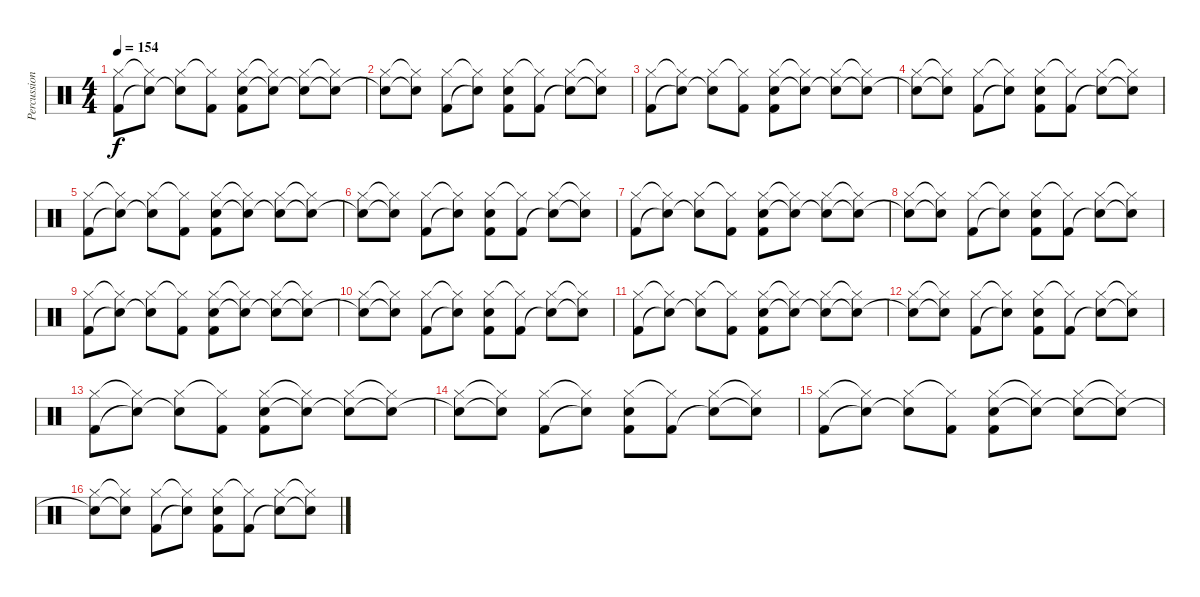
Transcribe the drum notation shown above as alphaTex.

\track ("Percussion" "Percussion") {instrument percussion}
\staff {score}
\articulation defaults
\ts (4 4)
\tempo 154
\clef neutral
\ks c
("Hi-Hat (closed)" "Kick (hit) 2").8{dy f} ("Hi-Hat (closed)"{t} "Snare (hit)"{t}).8 ("Hi-Hat (closed)" "Snare (hit)"{t}).8 ("Hi-Hat (closed)"{t} "Kick (hit) 2").8 ("Hi-Hat (closed)" "Electric Snare (hit)" "Kick (hit) 2").8 ("Hi-Hat (closed)"{t} "Snare (hit)"{t}).8 ("Hi-Hat (closed)" "Snare (hit)"{t}).8 ("Hi-Hat (closed)"{t} "Snare (hit)"{t}).8 |
("Hi-Hat (closed)" "Snare (hit)"{t}).8 ("Hi-Hat (closed)"{t} "Snare (hit)"{t}).8 ("Hi-Hat (closed)" "Kick (hit) 2").8 ("Hi-Hat (closed)"{t} "Snare (hit)"{t}).8 ("Hi-Hat (closed)" "Electric Snare (hit)" "Kick (hit) 2").8 ("Hi-Hat (closed)"{t} "Kick (hit) 2").8 ("Hi-Hat (closed)" "Snare (hit)"{t}).8 ("Hi-Hat (closed)"{t} "Snare (hit)"{t}).8 |
("Hi-Hat (closed)" "Kick (hit) 2").8 ("Hi-Hat (closed)"{t} "Snare (hit)"{t}).8 ("Hi-Hat (closed)" "Snare (hit)"{t}).8 ("Hi-Hat (closed)"{t} "Kick (hit) 2").8 ("Hi-Hat (closed)" "Electric Snare (hit)" "Kick (hit) 2").8 ("Hi-Hat (closed)"{t} "Snare (hit)"{t}).8 ("Hi-Hat (closed)" "Snare (hit)"{t}).8 ("Hi-Hat (closed)"{t} "Snare (hit)"{t}).8 |
("Hi-Hat (closed)" "Snare (hit)"{t}).8 ("Hi-Hat (closed)"{t} "Snare (hit)"{t}).8 ("Hi-Hat (closed)" "Kick (hit) 2").8 ("Hi-Hat (closed)"{t} "Snare (hit)"{t}).8 ("Hi-Hat (closed)" "Electric Snare (hit)" "Kick (hit) 2").8 ("Hi-Hat (closed)"{t} "Kick (hit) 2").8 ("Hi-Hat (closed)" "Snare (hit)"{t}).8 ("Hi-Hat (closed)"{t} "Snare (hit)"{t}).8 |
("Hi-Hat (closed)" "Kick (hit) 2").8 ("Hi-Hat (closed)"{t} "Snare (hit)"{t}).8 ("Hi-Hat (closed)" "Snare (hit)"{t}).8 ("Hi-Hat (closed)"{t} "Kick (hit) 2").8 ("Hi-Hat (closed)" "Electric Snare (hit)" "Kick (hit) 2").8 ("Hi-Hat (closed)"{t} "Snare (hit)"{t}).8 ("Hi-Hat (closed)" "Snare (hit)"{t}).8 ("Hi-Hat (closed)"{t} "Snare (hit)"{t}).8 |
("Hi-Hat (closed)" "Snare (hit)"{t}).8 ("Hi-Hat (closed)"{t} "Snare (hit)"{t}).8 ("Hi-Hat (closed)" "Kick (hit) 2").8 ("Hi-Hat (closed)"{t} "Snare (hit)"{t}).8 ("Hi-Hat (closed)" "Electric Snare (hit)" "Kick (hit) 2").8 ("Hi-Hat (closed)"{t} "Kick (hit) 2").8 ("Hi-Hat (closed)" "Snare (hit)"{t}).8 ("Hi-Hat (closed)"{t} "Snare (hit)"{t}).8 |
("Hi-Hat (closed)" "Kick (hit) 2").8 ("Hi-Hat (closed)"{t} "Snare (hit)"{t}).8 ("Hi-Hat (closed)" "Snare (hit)"{t}).8 ("Hi-Hat (closed)"{t} "Kick (hit) 2").8 ("Hi-Hat (closed)" "Electric Snare (hit)" "Kick (hit) 2").8 ("Hi-Hat (closed)"{t} "Snare (hit)"{t}).8 ("Hi-Hat (closed)" "Snare (hit)"{t}).8 ("Hi-Hat (closed)"{t} "Snare (hit)"{t}).8 |
("Hi-Hat (closed)" "Snare (hit)"{t}).8 ("Hi-Hat (closed)"{t} "Snare (hit)"{t}).8 ("Hi-Hat (closed)" "Kick (hit) 2").8 ("Hi-Hat (closed)"{t} "Snare (hit)"{t}).8 ("Hi-Hat (closed)" "Electric Snare (hit)" "Kick (hit) 2").8 ("Hi-Hat (closed)"{t} "Kick (hit) 2").8 ("Hi-Hat (closed)" "Snare (hit)"{t}).8 ("Hi-Hat (closed)"{t} "Snare (hit)"{t}).8 |
("Hi-Hat (closed)" "Kick (hit) 2").8 ("Hi-Hat (closed)"{t} "Snare (hit)"{t}).8 ("Hi-Hat (closed)" "Snare (hit)"{t}).8 ("Hi-Hat (closed)"{t} "Kick (hit) 2").8 ("Hi-Hat (closed)" "Electric Snare (hit)" "Kick (hit) 2").8 ("Hi-Hat (closed)"{t} "Snare (hit)"{t}).8 ("Hi-Hat (closed)" "Snare (hit)"{t}).8 ("Hi-Hat (closed)"{t} "Snare (hit)"{t}).8 |
("Hi-Hat (closed)" "Snare (hit)"{t}).8 ("Hi-Hat (closed)"{t} "Snare (hit)"{t}).8 ("Hi-Hat (closed)" "Kick (hit) 2").8 ("Hi-Hat (closed)"{t} "Snare (hit)"{t}).8 ("Hi-Hat (closed)" "Electric Snare (hit)" "Kick (hit) 2").8 ("Hi-Hat (closed)"{t} "Kick (hit) 2").8 ("Hi-Hat (closed)" "Snare (hit)"{t}).8 ("Hi-Hat (closed)"{t} "Snare (hit)"{t}).8 |
("Hi-Hat (closed)" "Kick (hit) 2").8 ("Hi-Hat (closed)"{t} "Snare (hit)"{t}).8 ("Hi-Hat (closed)" "Snare (hit)"{t}).8 ("Hi-Hat (closed)"{t} "Kick (hit) 2").8 ("Hi-Hat (closed)" "Electric Snare (hit)" "Kick (hit) 2").8 ("Hi-Hat (closed)"{t} "Snare (hit)"{t}).8 ("Hi-Hat (closed)" "Snare (hit)"{t}).8 ("Hi-Hat (closed)"{t} "Snare (hit)"{t}).8 |
("Hi-Hat (closed)" "Snare (hit)"{t}).8 ("Hi-Hat (closed)"{t} "Snare (hit)"{t}).8 ("Hi-Hat (closed)" "Kick (hit) 2").8 ("Hi-Hat (closed)"{t} "Snare (hit)"{t}).8 ("Hi-Hat (closed)" "Electric Snare (hit)" "Kick (hit) 2").8 ("Hi-Hat (closed)"{t} "Kick (hit) 2").8 ("Hi-Hat (closed)" "Snare (hit)"{t}).8 ("Hi-Hat (closed)"{t} "Snare (hit)"{t}).8 |
("Hi-Hat (closed)" "Kick (hit) 2").8 ("Hi-Hat (closed)"{t} "Snare (hit)"{t}).8 ("Hi-Hat (closed)" "Snare (hit)"{t}).8 ("Hi-Hat (closed)"{t} "Kick (hit) 2").8 ("Hi-Hat (closed)" "Electric Snare (hit)" "Kick (hit) 2").8 ("Hi-Hat (closed)"{t} "Snare (hit)"{t}).8 ("Hi-Hat (closed)" "Snare (hit)"{t}).8 ("Hi-Hat (closed)"{t} "Snare (hit)"{t}).8 |
("Hi-Hat (closed)" "Snare (hit)"{t}).8 ("Hi-Hat (closed)"{t} "Snare (hit)"{t}).8 ("Hi-Hat (closed)" "Kick (hit) 2").8 ("Hi-Hat (closed)"{t} "Snare (hit)"{t}).8 ("Hi-Hat (closed)" "Electric Snare (hit)" "Kick (hit) 2").8 ("Hi-Hat (closed)"{t} "Kick (hit) 2").8 ("Hi-Hat (closed)" "Snare (hit)"{t}).8 ("Hi-Hat (closed)"{t} "Snare (hit)"{t}).8 |
("Hi-Hat (closed)" "Kick (hit) 2").8 ("Hi-Hat (closed)"{t} "Snare (hit)"{t}).8 ("Hi-Hat (closed)" "Snare (hit)"{t}).8 ("Hi-Hat (closed)"{t} "Kick (hit) 2").8 ("Hi-Hat (closed)" "Electric Snare (hit)" "Kick (hit) 2").8 ("Hi-Hat (closed)"{t} "Snare (hit)"{t}).8 ("Hi-Hat (closed)" "Snare (hit)"{t}).8 ("Hi-Hat (closed)"{t} "Snare (hit)"{t}).8 |
("Hi-Hat (closed)" "Snare (hit)"{t}).8 ("Hi-Hat (closed)"{t} "Snare (hit)"{t}).8 ("Hi-Hat (closed)" "Kick (hit) 2").8 ("Hi-Hat (closed)"{t} "Snare (hit)"{t}).8 ("Hi-Hat (closed)" "Electric Snare (hit)" "Kick (hit) 2").8 ("Hi-Hat (closed)"{t} "Kick (hit) 2").8 ("Hi-Hat (closed)" "Snare (hit)"{t}).8 ("Hi-Hat (closed)"{t} "Snare (hit)"{t}).8
